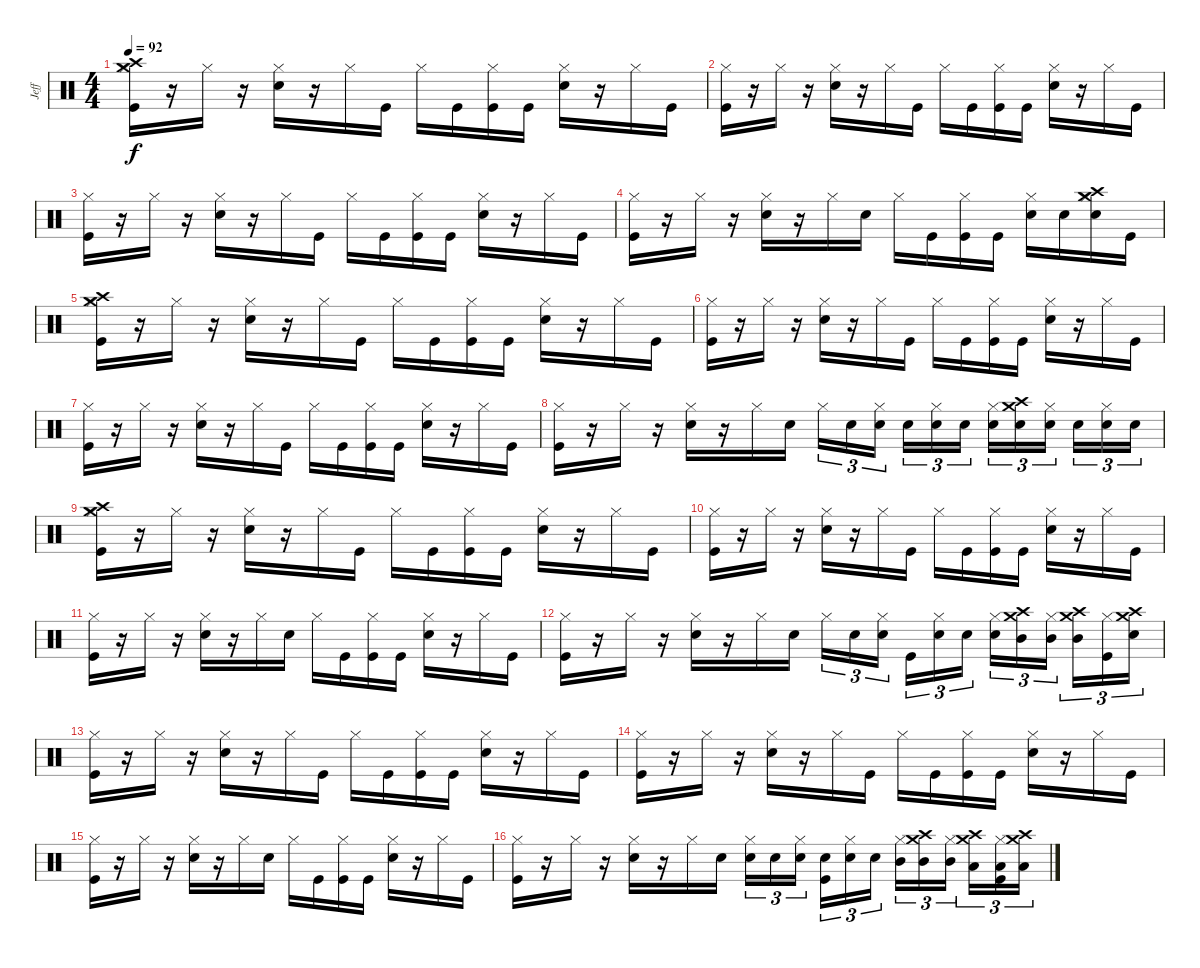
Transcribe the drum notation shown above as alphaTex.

\track ("Jeff" "Jeff") {instrument percussion}
\staff {score}
\articulation defaults
\ts (4 4)
\tempo 92
\clef neutral
\ks c
("Crash medium (hit)" "Hi-Hat (closed)" "Crash high (hit)" "Kick (hit)").16{dy f} r.16 "Hi-Hat (closed)".16 r.16 ("Electric Snare (hit)" "Hi-Hat (closed)").16 r.16 "Hi-Hat (closed)".16 "Kick (hit)".16 "Hi-Hat (closed)".16 "Kick (hit)".16 ("Hi-Hat (closed)" "Kick (hit)").16 "Kick (hit)".16 ("Electric Snare (hit)" "Hi-Hat (closed)").16 r.16 "Hi-Hat (closed)".16 "Kick (hit)".16 |
("Hi-Hat (closed)" "Kick (hit)").16 r.16 "Hi-Hat (closed)".16 r.16 ("Electric Snare (hit)" "Hi-Hat (closed)").16 r.16 "Hi-Hat (closed)".16 "Kick (hit)".16 "Hi-Hat (closed)".16 "Kick (hit)".16 ("Hi-Hat (closed)" "Kick (hit)").16 "Kick (hit)".16 ("Electric Snare (hit)" "Hi-Hat (closed)").16 r.16 "Hi-Hat (closed)".16 "Kick (hit)".16 |
("Hi-Hat (closed)" "Kick (hit)").16 r.16 "Hi-Hat (closed)".16 r.16 ("Electric Snare (hit)" "Hi-Hat (closed)").16 r.16 "Hi-Hat (closed)".16 "Kick (hit)".16 "Hi-Hat (closed)".16 "Kick (hit)".16 ("Hi-Hat (closed)" "Kick (hit)").16 "Kick (hit)".16 ("Electric Snare (hit)" "Hi-Hat (closed)").16 r.16 "Hi-Hat (closed)".16 "Kick (hit)".16 |
("Hi-Hat (closed)" "Kick (hit)").16 r.16 "Hi-Hat (closed)".16 r.16 ("Electric Snare (hit)" "Hi-Hat (closed)").16 r.16 "Hi-Hat (closed)".16 "Electric Snare (hit)".16 "Hi-Hat (closed)".16 "Kick (hit)".16 ("Hi-Hat (closed)" "Kick (hit)").16 "Kick (hit)".16 ("Electric Snare (hit)" "Hi-Hat (closed)").16 "Electric Snare (hit)".16 ("Electric Snare (hit)" "Crash high (hit)" "Hi-Hat (closed)" "Crash medium (hit)").16 "Kick (hit)".16 |
("Crash medium (hit)" "Crash high (hit)" "Hi-Hat (closed)" "Kick (hit)").16 r.16 "Hi-Hat (closed)".16 r.16 ("Electric Snare (hit)" "Hi-Hat (closed)").16 r.16 "Hi-Hat (closed)".16 "Kick (hit)".16 "Hi-Hat (closed)".16 "Kick (hit)".16 ("Hi-Hat (closed)" "Kick (hit)").16 "Kick (hit)".16 ("Electric Snare (hit)" "Hi-Hat (closed)").16 r.16 "Hi-Hat (closed)".16 "Kick (hit)".16 |
("Hi-Hat (closed)" "Kick (hit)").16 r.16 "Hi-Hat (closed)".16 r.16 ("Electric Snare (hit)" "Hi-Hat (closed)").16 r.16 "Hi-Hat (closed)".16 "Kick (hit)".16 "Hi-Hat (closed)".16 "Kick (hit)".16 ("Hi-Hat (closed)" "Kick (hit)").16 "Kick (hit)".16 ("Electric Snare (hit)" "Hi-Hat (closed)").16 r.16 "Hi-Hat (closed)".16 "Kick (hit)".16 |
("Hi-Hat (closed)" "Kick (hit)").16 r.16 "Hi-Hat (closed)".16 r.16 ("Electric Snare (hit)" "Hi-Hat (closed)").16 r.16 "Hi-Hat (closed)".16 "Kick (hit)".16 "Hi-Hat (closed)".16 "Kick (hit)".16 ("Hi-Hat (closed)" "Kick (hit)").16 "Kick (hit)".16 ("Electric Snare (hit)" "Hi-Hat (closed)").16 r.16 "Hi-Hat (closed)".16 "Kick (hit)".16 |
("Hi-Hat (closed)" "Kick (hit)").16 r.16 "Hi-Hat (closed)".16 r.16 ("Electric Snare (hit)" "Hi-Hat (closed)").16 r.16 "Hi-Hat (closed)".16 "Electric Snare (hit)".16 "Hi-Hat (closed)".16{tu (3 2)} "Electric Snare (hit)".16{tu (3 2)} ("Electric Snare (hit)" "Hi-Hat (closed)").16{tu (3 2)} "Electric Snare (hit)".16{tu (3 2)} ("Electric Snare (hit)" "Hi-Hat (closed)").16{tu (3 2)} "Electric Snare (hit)".16{tu (3 2)} ("Electric Snare (hit)" "Hi-Hat (closed)").16{tu (3 2)} ("Electric Snare (hit)" "Crash medium (hit)" "Crash high (hit)").16{tu (3 2)} ("Electric Snare (hit)" "Hi-Hat (closed)").16{tu (3 2)} "Electric Snare (hit)".16{tu (3 2)} ("Electric Snare (hit)" "Hi-Hat (closed)").16{tu (3 2)} "Electric Snare (hit)".16{tu (3 2)} |
("Crash medium (hit)" "Crash high (hit)" "Hi-Hat (closed)" "Kick (hit)").16 r.16 "Hi-Hat (closed)".16 r.16 ("Electric Snare (hit)" "Hi-Hat (closed)").16 r.16 "Hi-Hat (closed)".16 "Kick (hit)".16 "Hi-Hat (closed)".16 "Kick (hit)".16 ("Hi-Hat (closed)" "Kick (hit)").16 "Kick (hit)".16 ("Electric Snare (hit)" "Hi-Hat (closed)").16 r.16 "Hi-Hat (closed)".16 "Kick (hit)".16 |
("Hi-Hat (closed)" "Kick (hit)").16 r.16 "Hi-Hat (closed)".16 r.16 ("Electric Snare (hit)" "Hi-Hat (closed)").16 r.16 "Hi-Hat (closed)".16 "Kick (hit)".16 "Hi-Hat (closed)".16 "Kick (hit)".16 ("Hi-Hat (closed)" "Kick (hit)").16 "Kick (hit)".16 ("Electric Snare (hit)" "Hi-Hat (closed)").16 r.16 "Hi-Hat (closed)".16 "Kick (hit)".16 |
("Hi-Hat (closed)" "Kick (hit)").16 r.16 "Hi-Hat (closed)".16 r.16 ("Electric Snare (hit)" "Hi-Hat (closed)").16 r.16 "Hi-Hat (closed)".16 "Electric Snare (hit)".16 "Hi-Hat (closed)".16 "Kick (hit)".16 ("Hi-Hat (closed)" "Kick (hit)").16 "Kick (hit)".16 ("Electric Snare (hit)" "Hi-Hat (closed)").16 r.16 "Hi-Hat (closed)".16 "Kick (hit)".16 |
("Hi-Hat (closed)" "Kick (hit)").16 r.16 "Hi-Hat (closed)".16 r.16 ("Electric Snare (hit)" "Hi-Hat (closed)").16 r.16 "Hi-Hat (closed)".16 "Electric Snare (hit)".16 "Hi-Hat (closed)".16{tu (3 2)} "Electric Snare (hit)".16{tu (3 2)} ("Electric Snare (hit)" "Hi-Hat (closed)").16{tu (3 2)} "Kick (hit)".16{tu (3 2)} ("Electric Snare (hit)" "Hi-Hat (closed)").16{tu (3 2)} "Electric Snare (hit)".16{tu (3 2)} ("Electric Snare (hit)" "Hi-Hat (closed)").16{tu (3 2)} ("Mid Tom (hit)" "Crash medium (hit)" "Crash high (hit)").16{tu (3 2)} ("Mid Tom (hit)" "Hi-Hat (closed)").16{tu (3 2)} ("Mid Tom (hit)" "Crash medium (hit)" "Crash high (hit)").16{tu (3 2)} ("Hi-Hat (closed)" "Kick (hit)").16{tu (3 2)} ("Electric Snare (hit)" "Crash medium (hit)" "Crash high (hit)").16{tu (3 2)} |
("Hi-Hat (closed)" "Kick (hit)").16 r.16 "Hi-Hat (closed)".16 r.16 ("Electric Snare (hit)" "Hi-Hat (closed)").16 r.16 "Hi-Hat (closed)".16 "Kick (hit)".16 "Hi-Hat (closed)".16 "Kick (hit)".16 ("Hi-Hat (closed)" "Kick (hit)").16 "Kick (hit)".16 ("Electric Snare (hit)" "Hi-Hat (closed)").16 r.16 "Hi-Hat (closed)".16 "Kick (hit)".16 |
("Hi-Hat (closed)" "Kick (hit)").16 r.16 "Hi-Hat (closed)".16 r.16 ("Electric Snare (hit)" "Hi-Hat (closed)").16 r.16 "Hi-Hat (closed)".16 "Kick (hit)".16 "Hi-Hat (closed)".16 "Kick (hit)".16 ("Hi-Hat (closed)" "Kick (hit)").16 "Kick (hit)".16 ("Electric Snare (hit)" "Hi-Hat (closed)").16 r.16 "Hi-Hat (closed)".16 "Kick (hit)".16 |
("Hi-Hat (closed)" "Kick (hit)").16 r.16 "Hi-Hat (closed)".16 r.16 ("Electric Snare (hit)" "Hi-Hat (closed)").16 r.16 "Hi-Hat (closed)".16 "Electric Snare (hit)".16 "Hi-Hat (closed)".16 "Kick (hit)".16 ("Hi-Hat (closed)" "Kick (hit)").16 "Kick (hit)".16 ("Electric Snare (hit)" "Hi-Hat (closed)").16 r.16 "Hi-Hat (closed)".16 "Kick (hit)".16 |
("Hi-Hat (closed)" "Kick (hit)").16 r.16 "Hi-Hat (closed)".16 r.16 ("Electric Snare (hit)" "Hi-Hat (closed)").16 r.16 "Hi-Hat (closed)".16 "Electric Snare (hit)".16 ("Electric Snare (hit)" "Hi-Hat (closed)").16{tu (3 2)} "Electric Snare (hit)".16{tu (3 2)} ("Electric Snare (hit)" "Hi-Hat (closed)").16{tu (3 2)} ("Electric Snare (hit)" "Kick (hit)").16{tu (3 2)} ("Electric Snare (hit)" "Hi-Hat (closed)").16{tu (3 2)} "Electric Snare (hit)".16{tu (3 2)} ("Mid Tom (hit)" "Hi-Hat (closed)").16{tu (3 2)} ("Mid Tom (hit)" "Crash medium (hit)" "Crash high (hit)").16{tu (3 2)} ("Mid Tom (hit)" "Hi-Hat (closed)").16{tu (3 2)} ("Low Floor Tom (hit)" "Crash medium (hit)" "Crash high (hit)").16{tu (3 2)} ("Low Floor Tom (hit)" "Hi-Hat (closed)" "Kick (hit)").16{tu (3 2)} ("Low Floor Tom (hit)" "Crash medium (hit)" "Crash high (hit)").16{tu (3 2)}
